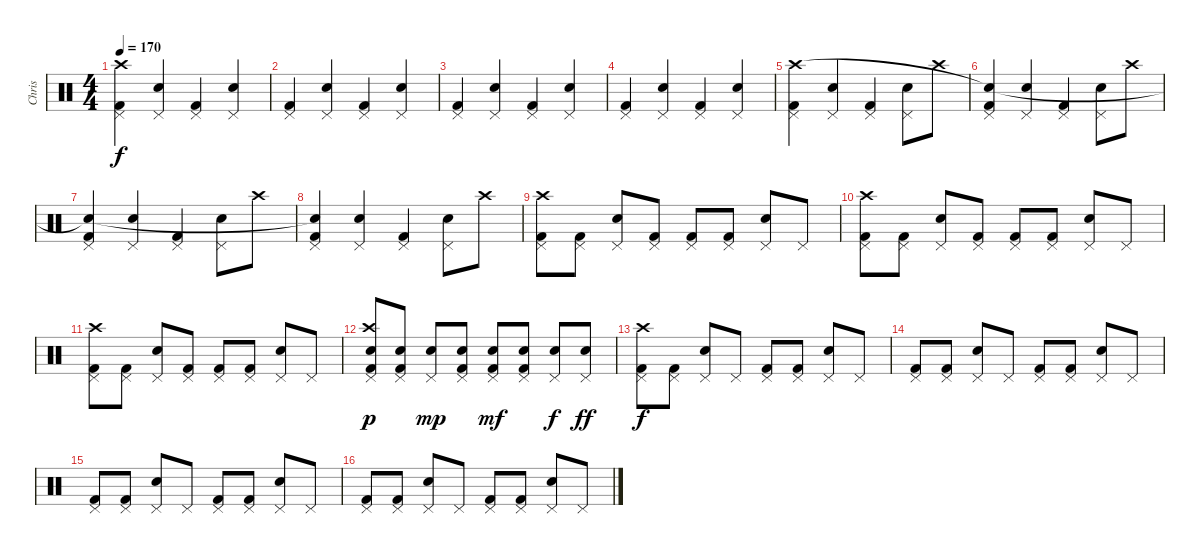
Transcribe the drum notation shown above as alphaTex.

\track ("Chris" "Chris") {instrument percussion}
\staff {score}
\articulation defaults
\ts (4 4)
\tempo 170
\clef neutral
\ks c
("Pedal Hi-Hat (hit)" "Kick (hit) 2" "Crash high (hit)").4{dy f} ("Pedal Hi-Hat (hit)" "Electric Snare (hit)").4 ("Pedal Hi-Hat (hit)" "Kick (hit) 2").4 ("Pedal Hi-Hat (hit)" "Electric Snare (hit)").4 |
("Pedal Hi-Hat (hit)" "Kick (hit) 2").4 ("Pedal Hi-Hat (hit)" "Electric Snare (hit)").4 ("Pedal Hi-Hat (hit)" "Kick (hit) 2").4 ("Pedal Hi-Hat (hit)" "Electric Snare (hit)").4 |
("Pedal Hi-Hat (hit)" "Kick (hit) 2").4 ("Pedal Hi-Hat (hit)" "Electric Snare (hit)").4 ("Pedal Hi-Hat (hit)" "Kick (hit) 2").4 ("Pedal Hi-Hat (hit)" "Electric Snare (hit)").4 |
("Pedal Hi-Hat (hit)" "Kick (hit) 2").4 ("Pedal Hi-Hat (hit)" "Electric Snare (hit)").4 ("Pedal Hi-Hat (hit)" "Kick (hit) 2").4 ("Pedal Hi-Hat (hit)" "Electric Snare (hit)").4 |
("Pedal Hi-Hat (hit)" "Kick (hit) 2" "Crash high (hit)").4 ("Pedal Hi-Hat (hit)" "Electric Snare (hit)").4 ("Pedal Hi-Hat (hit)" "Kick (hit) 2").4 ("Pedal Hi-Hat (hit)" "Electric Snare (hit)").8 "Crash high (hit)".8 |
("Pedal Hi-Hat (hit)" "Kick (hit) 2" "Snare (hit)"{t}).4 ("Pedal Hi-Hat (hit)" "Electric Snare (hit)").4 ("Pedal Hi-Hat (hit)" "Kick (hit) 2").4 ("Pedal Hi-Hat (hit)" "Electric Snare (hit)").8 "Crash high (hit)".8 |
("Pedal Hi-Hat (hit)" "Kick (hit) 2" "Snare (hit)"{t}).4 ("Pedal Hi-Hat (hit)" "Electric Snare (hit)").4 ("Pedal Hi-Hat (hit)" "Kick (hit) 2").4 ("Pedal Hi-Hat (hit)" "Electric Snare (hit)").8 "Crash high (hit)".8 |
("Pedal Hi-Hat (hit)" "Kick (hit) 2" "Snare (hit)"{t}).4 ("Pedal Hi-Hat (hit)" "Electric Snare (hit)").4 ("Pedal Hi-Hat (hit)" "Kick (hit) 2").4 ("Pedal Hi-Hat (hit)" "Electric Snare (hit)").8 "Crash high (hit)".8 |
("Pedal Hi-Hat (hit)" "Kick (hit) 2" "Crash high (hit)").8 ("Pedal Hi-Hat (hit)" "Kick (hit) 2").8 ("Pedal Hi-Hat (hit)" "Electric Snare (hit)").8 ("Pedal Hi-Hat (hit)" "Kick (hit) 2").8 ("Pedal Hi-Hat (hit)" "Kick (hit) 2").8 ("Pedal Hi-Hat (hit)" "Kick (hit) 2").8 ("Pedal Hi-Hat (hit)" "Electric Snare (hit)").8 "Pedal Hi-Hat (hit)".8 |
("Pedal Hi-Hat (hit)" "Kick (hit) 2" "Crash high (hit)").8 ("Pedal Hi-Hat (hit)" "Kick (hit) 2").8 ("Pedal Hi-Hat (hit)" "Electric Snare (hit)").8 ("Pedal Hi-Hat (hit)" "Kick (hit) 2").8 ("Pedal Hi-Hat (hit)" "Kick (hit) 2").8 ("Pedal Hi-Hat (hit)" "Kick (hit) 2").8 ("Pedal Hi-Hat (hit)" "Electric Snare (hit)").8 "Pedal Hi-Hat (hit)".8 |
("Pedal Hi-Hat (hit)" "Kick (hit) 2" "Crash high (hit)").8 ("Pedal Hi-Hat (hit)" "Kick (hit) 2").8 ("Pedal Hi-Hat (hit)" "Electric Snare (hit)").8 ("Pedal Hi-Hat (hit)" "Kick (hit) 2").8 ("Pedal Hi-Hat (hit)" "Kick (hit) 2").8 ("Pedal Hi-Hat (hit)" "Kick (hit) 2").8 ("Pedal Hi-Hat (hit)" "Electric Snare (hit)").8 "Pedal Hi-Hat (hit)".8 |
("Pedal Hi-Hat (hit)" "Electric Snare (hit)" "Kick (hit) 2" "Crash high (hit)").8{dy p} ("Pedal Hi-Hat (hit)" "Electric Snare (hit)" "Kick (hit) 2").8 ("Pedal Hi-Hat (hit)" "Electric Snare (hit)").8{dy mp} ("Pedal Hi-Hat (hit)" "Electric Snare (hit)" "Kick (hit) 2").8 ("Pedal Hi-Hat (hit)" "Electric Snare (hit)" "Kick (hit) 2").8{dy mf} ("Pedal Hi-Hat (hit)" "Electric Snare (hit)" "Kick (hit) 2").8 ("Pedal Hi-Hat (hit)" "Electric Snare (hit)").8{dy f} ("Pedal Hi-Hat (hit)" "Electric Snare (hit)").8{dy ff} |
("Pedal Hi-Hat (hit)" "Kick (hit) 2" "Crash high (hit)").8{dy f} ("Pedal Hi-Hat (hit)" "Kick (hit) 2").8 ("Pedal Hi-Hat (hit)" "Electric Snare (hit)").8 "Pedal Hi-Hat (hit)".8 ("Pedal Hi-Hat (hit)" "Kick (hit) 2").8 ("Pedal Hi-Hat (hit)" "Kick (hit) 2").8 ("Pedal Hi-Hat (hit)" "Electric Snare (hit)").8 "Pedal Hi-Hat (hit)".8 |
("Pedal Hi-Hat (hit)" "Kick (hit) 2").8 ("Pedal Hi-Hat (hit)" "Kick (hit) 2").8 ("Pedal Hi-Hat (hit)" "Electric Snare (hit)").8 "Pedal Hi-Hat (hit)".8 ("Pedal Hi-Hat (hit)" "Kick (hit) 2").8 ("Pedal Hi-Hat (hit)" "Kick (hit) 2").8 ("Pedal Hi-Hat (hit)" "Electric Snare (hit)").8 "Pedal Hi-Hat (hit)".8 |
("Pedal Hi-Hat (hit)" "Kick (hit) 2").8 ("Pedal Hi-Hat (hit)" "Kick (hit) 2").8 ("Pedal Hi-Hat (hit)" "Electric Snare (hit)").8 "Pedal Hi-Hat (hit)".8 ("Pedal Hi-Hat (hit)" "Kick (hit) 2").8 ("Pedal Hi-Hat (hit)" "Kick (hit) 2").8 ("Pedal Hi-Hat (hit)" "Electric Snare (hit)").8 "Pedal Hi-Hat (hit)".8 |
("Pedal Hi-Hat (hit)" "Kick (hit) 2").8 ("Pedal Hi-Hat (hit)" "Kick (hit) 2").8 ("Pedal Hi-Hat (hit)" "Electric Snare (hit)").8 "Pedal Hi-Hat (hit)".8 ("Pedal Hi-Hat (hit)" "Kick (hit) 2").8 ("Pedal Hi-Hat (hit)" "Kick (hit) 2").8 ("Pedal Hi-Hat (hit)" "Electric Snare (hit)").8 "Pedal Hi-Hat (hit)".8
